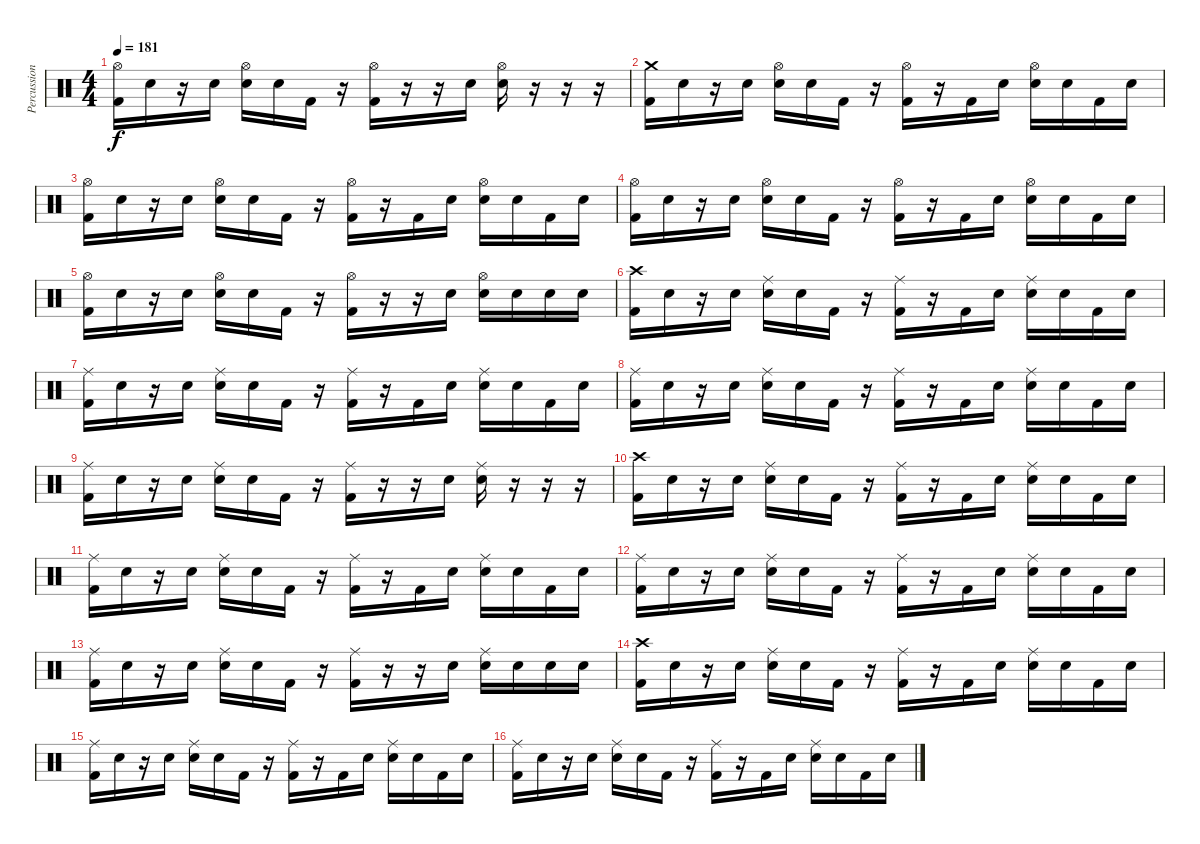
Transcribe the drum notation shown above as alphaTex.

\track ("Percussion" "Percussion") {instrument percussion}
\staff {score}
\articulation defaults
\ts (4 4)
\tempo 181
\clef neutral
\ks c
("Kick (hit) 2" "Hi-Hat (open)").16{dy f} "Snare (hit)"{x}.16 r.16 "Snare (hit)"{x}.16 ("Electric Snare (hit)" "Hi-Hat (open)").16 "Snare (hit)"{x}.16 "Kick (hit) 2".16 r.16 ("Kick (hit) 2" "Hi-Hat (open)").16 r.16 r.16 "Snare (hit)"{x}.16 ("Electric Snare (hit)" "Hi-Hat (open)").16 r.16 r.16 r.16 |
("Kick (hit) 2" "Crash medium (hit)").16 "Snare (hit)"{x}.16 r.16 "Snare (hit)"{x}.16 ("Electric Snare (hit)" "Hi-Hat (open)").16 "Snare (hit)"{x}.16 "Kick (hit) 2".16 r.16 ("Kick (hit) 2" "Hi-Hat (open)").16 r.16 "Kick (hit) 2".16 "Snare (hit)"{x}.16 ("Electric Snare (hit)" "Hi-Hat (open)").16 "Snare (hit)"{x}.16 "Kick (hit) 2".16 "Snare (hit)"{x}.16 |
("Kick (hit) 2" "Hi-Hat (open)").16 "Snare (hit)"{x}.16 r.16 "Snare (hit)"{x}.16 ("Electric Snare (hit)" "Hi-Hat (open)").16 "Snare (hit)"{x}.16 "Kick (hit) 2".16 r.16 ("Kick (hit) 2" "Hi-Hat (open)").16 r.16 "Kick (hit) 2".16 "Snare (hit)"{x}.16 ("Electric Snare (hit)" "Hi-Hat (open)").16 "Snare (hit)"{x}.16 "Kick (hit) 2".16 "Snare (hit)"{x}.16 |
("Kick (hit) 2" "Hi-Hat (open)").16 "Snare (hit)"{x}.16 r.16 "Snare (hit)"{x}.16 ("Electric Snare (hit)" "Hi-Hat (open)").16 "Snare (hit)"{x}.16 "Kick (hit) 2".16 r.16 ("Kick (hit) 2" "Hi-Hat (open)").16 r.16 "Kick (hit) 2".16 "Snare (hit)"{x}.16 ("Electric Snare (hit)" "Hi-Hat (open)").16 "Snare (hit)"{x}.16 "Kick (hit) 2".16 "Snare (hit)"{x}.16 |
("Kick (hit) 2" "Hi-Hat (open)").16 "Snare (hit)"{x}.16 r.16 "Snare (hit)"{x}.16 ("Electric Snare (hit)" "Hi-Hat (open)").16 "Snare (hit)"{x}.16 "Kick (hit) 2".16 r.16 ("Kick (hit) 2" "Hi-Hat (open)").16 r.16 r.16 "Snare (hit)"{x}.16 ("Electric Snare (hit)" "Hi-Hat (open)").16 "Electric Snare (hit)".16 "Electric Snare (hit)".16 "Electric Snare (hit)".16 |
("Kick (hit) 2" "Crash high (hit)").16 "Snare (hit)"{x}.16 r.16 "Snare (hit)"{x}.16 ("Electric Snare (hit)" "Ride (middle)").16 "Snare (hit)"{x}.16 "Kick (hit) 2".16 r.16 ("Kick (hit) 2" "Ride (middle)").16 r.16 "Kick (hit) 2".16 "Snare (hit)"{x}.16 ("Electric Snare (hit)" "Ride (middle)").16 "Snare (hit)"{x}.16 "Kick (hit) 2".16 "Snare (hit)"{x}.16 |
("Kick (hit) 2" "Ride (middle)").16 "Snare (hit)"{x}.16 r.16 "Snare (hit)"{x}.16 ("Electric Snare (hit)" "Ride (middle)").16 "Snare (hit)"{x}.16 "Kick (hit) 2".16 r.16 ("Kick (hit) 2" "Ride (middle)").16 r.16 "Kick (hit) 2".16 "Snare (hit)"{x}.16 ("Electric Snare (hit)" "Ride (middle)").16 "Snare (hit)"{x}.16 "Kick (hit) 2".16 "Snare (hit)"{x}.16 |
("Kick (hit) 2" "Ride (middle)").16 "Snare (hit)"{x}.16 r.16 "Snare (hit)"{x}.16 ("Electric Snare (hit)" "Ride (middle)").16 "Snare (hit)"{x}.16 "Kick (hit) 2".16 r.16 ("Kick (hit) 2" "Ride (middle)").16 r.16 "Kick (hit) 2".16 "Snare (hit)"{x}.16 ("Electric Snare (hit)" "Ride (middle)").16 "Snare (hit)"{x}.16 "Kick (hit) 2".16 "Snare (hit)"{x}.16 |
("Kick (hit) 2" "Ride (middle)").16 "Snare (hit)"{x}.16 r.16 "Snare (hit)"{x}.16 ("Electric Snare (hit)" "Ride (middle)").16 "Snare (hit)"{x}.16 "Kick (hit) 2".16 r.16 ("Kick (hit) 2" "Ride (middle)").16 r.16 r.16 "Snare (hit)"{x}.16 ("Electric Snare (hit)" "Ride (middle)").16 r.16 r.16 r.16 |
("Kick (hit) 2" "Crash high (hit)").16 "Snare (hit)"{x}.16 r.16 "Snare (hit)"{x}.16 ("Electric Snare (hit)" "Ride (middle)").16 "Snare (hit)"{x}.16 "Kick (hit) 2".16 r.16 ("Kick (hit) 2" "Ride (middle)").16 r.16 "Kick (hit) 2".16 "Snare (hit)"{x}.16 ("Electric Snare (hit)" "Ride (middle)").16 "Snare (hit)"{x}.16 "Kick (hit) 2".16 "Snare (hit)"{x}.16 |
("Kick (hit) 2" "Ride (middle)").16 "Snare (hit)"{x}.16 r.16 "Snare (hit)"{x}.16 ("Electric Snare (hit)" "Ride (middle)").16 "Snare (hit)"{x}.16 "Kick (hit) 2".16 r.16 ("Kick (hit) 2" "Ride (middle)").16 r.16 "Kick (hit) 2".16 "Snare (hit)"{x}.16 ("Electric Snare (hit)" "Ride (middle)").16 "Snare (hit)"{x}.16 "Kick (hit) 2".16 "Snare (hit)"{x}.16 |
("Kick (hit) 2" "Ride (middle)").16 "Snare (hit)"{x}.16 r.16 "Snare (hit)"{x}.16 ("Electric Snare (hit)" "Ride (middle)").16 "Snare (hit)"{x}.16 "Kick (hit) 2".16 r.16 ("Kick (hit) 2" "Ride (middle)").16 r.16 "Kick (hit) 2".16 "Snare (hit)"{x}.16 ("Electric Snare (hit)" "Ride (middle)").16 "Snare (hit)"{x}.16 "Kick (hit) 2".16 "Snare (hit)"{x}.16 |
("Kick (hit) 2" "Ride (middle)").16 "Snare (hit)"{x}.16 r.16 "Snare (hit)"{x}.16 ("Electric Snare (hit)" "Ride (middle)").16 "Snare (hit)"{x}.16 "Kick (hit) 2".16 r.16 ("Kick (hit) 2" "Ride (middle)").16 r.16 r.16 "Snare (hit)"{x}.16 ("Electric Snare (hit)" "Ride (middle)").16 "Electric Snare (hit)".16 "Electric Snare (hit)".16 "Electric Snare (hit)".16 |
("Kick (hit) 2" "Crash high (hit)").16 "Snare (hit)"{x}.16 r.16 "Snare (hit)"{x}.16 ("Electric Snare (hit)" "Ride (middle)").16 "Snare (hit)"{x}.16 "Kick (hit) 2".16 r.16 ("Kick (hit) 2" "Ride (middle)").16 r.16 "Kick (hit) 2".16 "Snare (hit)"{x}.16 ("Electric Snare (hit)" "Ride (middle)").16 "Snare (hit)"{x}.16 "Kick (hit) 2".16 "Snare (hit)"{x}.16 |
("Kick (hit) 2" "Ride (middle)").16 "Snare (hit)"{x}.16 r.16 "Snare (hit)"{x}.16 ("Electric Snare (hit)" "Ride (middle)").16 "Snare (hit)"{x}.16 "Kick (hit) 2".16 r.16 ("Kick (hit) 2" "Ride (middle)").16 r.16 "Kick (hit) 2".16 "Snare (hit)"{x}.16 ("Electric Snare (hit)" "Ride (middle)").16 "Snare (hit)"{x}.16 "Kick (hit) 2".16 "Snare (hit)"{x}.16 |
("Kick (hit) 2" "Ride (middle)").16 "Snare (hit)"{x}.16 r.16 "Snare (hit)"{x}.16 ("Electric Snare (hit)" "Ride (middle)").16 "Snare (hit)"{x}.16 "Kick (hit) 2".16 r.16 ("Kick (hit) 2" "Ride (middle)").16 r.16 "Kick (hit) 2".16 "Snare (hit)"{x}.16 ("Electric Snare (hit)" "Ride (middle)").16 "Snare (hit)"{x}.16 "Kick (hit) 2".16 "Snare (hit)"{x}.16
